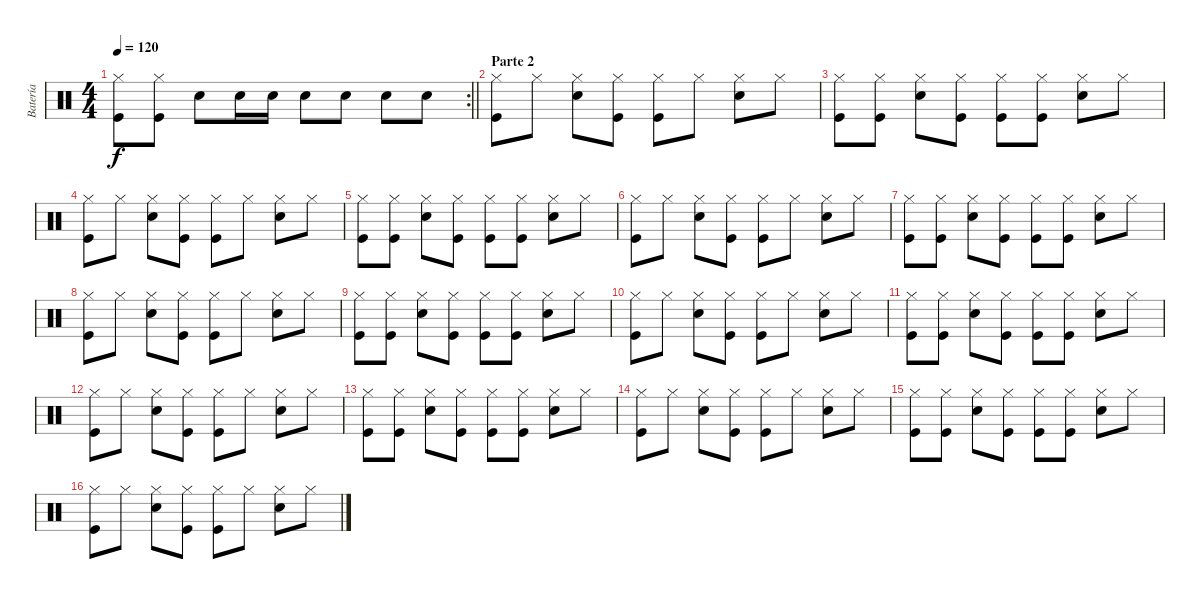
\track ("Batería" "Batería") {instrument percussion}
\staff {score}
\articulation defaults
\rc 2
\ts (4 4)
\tempo 120
\clef neutral
\barLineRight lightlight
\ks c
("Hi-Hat (closed)" "Kick (hit)").8{dy f} ("Hi-Hat (closed)" "Kick (hit)").8 "Electric Snare (hit)".8 "Electric Snare (hit)".16 "Electric Snare (hit)".16 "Electric Snare (hit)".8 "Electric Snare (hit)".8 "Electric Snare (hit)".8 "Electric Snare (hit)".8 |
\section ("" "Parte 2")
("Hi-Hat (closed)" "Kick (hit)").8 "Hi-Hat (closed)".8 ("Hi-Hat (closed)" "Snare (hit) 2").8 ("Hi-Hat (closed)" "Kick (hit)").8 ("Hi-Hat (closed)" "Kick (hit)").8 "Hi-Hat (closed)".8 ("Hi-Hat (closed)" "Snare (hit) 2").8 "Hi-Hat (closed)".8 |
("Hi-Hat (closed)" "Kick (hit)").8 ("Hi-Hat (closed)" "Kick (hit)").8 ("Hi-Hat (closed)" "Snare (hit) 2").8 ("Hi-Hat (closed)" "Kick (hit)").8 ("Hi-Hat (closed)" "Kick (hit)").8 ("Hi-Hat (closed)" "Kick (hit)").8 ("Hi-Hat (closed)" "Snare (hit) 2").8 "Hi-Hat (closed)".8 |
("Hi-Hat (closed)" "Kick (hit)").8 "Hi-Hat (closed)".8 ("Hi-Hat (closed)" "Snare (hit) 2").8 ("Hi-Hat (closed)" "Kick (hit)").8 ("Hi-Hat (closed)" "Kick (hit)").8 "Hi-Hat (closed)".8 ("Hi-Hat (closed)" "Snare (hit) 2").8 "Hi-Hat (closed)".8 |
("Hi-Hat (closed)" "Kick (hit)").8 ("Hi-Hat (closed)" "Kick (hit)").8 ("Hi-Hat (closed)" "Snare (hit) 2").8 ("Hi-Hat (closed)" "Kick (hit)").8 ("Hi-Hat (closed)" "Kick (hit)").8 ("Hi-Hat (closed)" "Kick (hit)").8 ("Hi-Hat (closed)" "Snare (hit) 2").8 "Hi-Hat (closed)".8 |
("Hi-Hat (closed)" "Kick (hit)").8 "Hi-Hat (closed)".8 ("Hi-Hat (closed)" "Snare (hit) 2").8 ("Hi-Hat (closed)" "Kick (hit)").8 ("Hi-Hat (closed)" "Kick (hit)").8 "Hi-Hat (closed)".8 ("Hi-Hat (closed)" "Snare (hit) 2").8 "Hi-Hat (closed)".8 |
("Hi-Hat (closed)" "Kick (hit)").8 ("Hi-Hat (closed)" "Kick (hit)").8 ("Hi-Hat (closed)" "Snare (hit) 2").8 ("Hi-Hat (closed)" "Kick (hit)").8 ("Hi-Hat (closed)" "Kick (hit)").8 ("Hi-Hat (closed)" "Kick (hit)").8 ("Hi-Hat (closed)" "Snare (hit) 2").8 "Hi-Hat (closed)".8 |
("Hi-Hat (closed)" "Kick (hit)").8 "Hi-Hat (closed)".8 ("Hi-Hat (closed)" "Snare (hit) 2").8 ("Hi-Hat (closed)" "Kick (hit)").8 ("Hi-Hat (closed)" "Kick (hit)").8 "Hi-Hat (closed)".8 ("Hi-Hat (closed)" "Snare (hit) 2").8 "Hi-Hat (closed)".8 |
("Hi-Hat (closed)" "Kick (hit)").8 ("Hi-Hat (closed)" "Kick (hit)").8 ("Hi-Hat (closed)" "Snare (hit) 2").8 ("Hi-Hat (closed)" "Kick (hit)").8 ("Hi-Hat (closed)" "Kick (hit)").8 ("Hi-Hat (closed)" "Kick (hit)").8 ("Hi-Hat (closed)" "Snare (hit) 2").8 "Hi-Hat (closed)".8 |
("Hi-Hat (closed)" "Kick (hit)").8 "Hi-Hat (closed)".8 ("Hi-Hat (closed)" "Snare (hit) 2").8 ("Hi-Hat (closed)" "Kick (hit)").8 ("Hi-Hat (closed)" "Kick (hit)").8 "Hi-Hat (closed)".8 ("Hi-Hat (closed)" "Snare (hit) 2").8 "Hi-Hat (closed)".8 |
("Hi-Hat (closed)" "Kick (hit)").8 ("Hi-Hat (closed)" "Kick (hit)").8 ("Hi-Hat (closed)" "Snare (hit) 2").8 ("Hi-Hat (closed)" "Kick (hit)").8 ("Hi-Hat (closed)" "Kick (hit)").8 ("Hi-Hat (closed)" "Kick (hit)").8 ("Hi-Hat (closed)" "Snare (hit) 2").8 "Hi-Hat (closed)".8 |
("Hi-Hat (closed)" "Kick (hit)").8 "Hi-Hat (closed)".8 ("Hi-Hat (closed)" "Snare (hit) 2").8 ("Hi-Hat (closed)" "Kick (hit)").8 ("Hi-Hat (closed)" "Kick (hit)").8 "Hi-Hat (closed)".8 ("Hi-Hat (closed)" "Snare (hit) 2").8 "Hi-Hat (closed)".8 |
("Hi-Hat (closed)" "Kick (hit)").8 ("Hi-Hat (closed)" "Kick (hit)").8 ("Hi-Hat (closed)" "Snare (hit) 2").8 ("Hi-Hat (closed)" "Kick (hit)").8 ("Hi-Hat (closed)" "Kick (hit)").8 ("Hi-Hat (closed)" "Kick (hit)").8 ("Hi-Hat (closed)" "Snare (hit) 2").8 "Hi-Hat (closed)".8 |
("Hi-Hat (closed)" "Kick (hit)").8 "Hi-Hat (closed)".8 ("Hi-Hat (closed)" "Snare (hit) 2").8 ("Hi-Hat (closed)" "Kick (hit)").8 ("Hi-Hat (closed)" "Kick (hit)").8 "Hi-Hat (closed)".8 ("Hi-Hat (closed)" "Snare (hit) 2").8 "Hi-Hat (closed)".8 |
("Hi-Hat (closed)" "Kick (hit)").8 ("Hi-Hat (closed)" "Kick (hit)").8 ("Hi-Hat (closed)" "Snare (hit) 2").8 ("Hi-Hat (closed)" "Kick (hit)").8 ("Hi-Hat (closed)" "Kick (hit)").8 ("Hi-Hat (closed)" "Kick (hit)").8 ("Hi-Hat (closed)" "Snare (hit) 2").8 "Hi-Hat (closed)".8 |
("Hi-Hat (closed)" "Kick (hit)").8 "Hi-Hat (closed)".8 ("Hi-Hat (closed)" "Snare (hit) 2").8 ("Hi-Hat (closed)" "Kick (hit)").8 ("Hi-Hat (closed)" "Kick (hit)").8 "Hi-Hat (closed)".8 ("Hi-Hat (closed)" "Snare (hit) 2").8 "Hi-Hat (closed)".8
